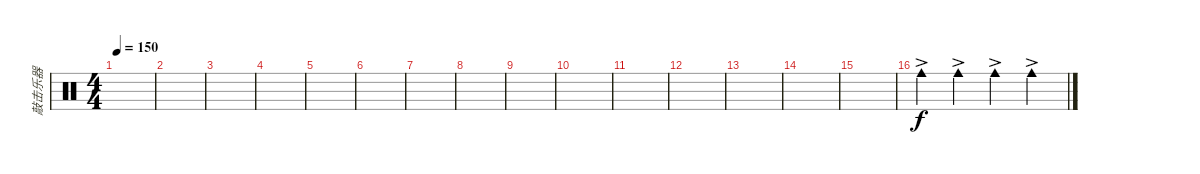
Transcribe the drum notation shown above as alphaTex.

\track ("敲击乐器" "敲击乐器") {instrument percussion}
\staff {score}
\articulation defaults
\ts (4 4)
\tempo 150
\clef neutral
\ks c
|
|
|
|
|
|
|
|
|
|
|
|
|
|
|
"Cowbell medium (hit)"{ac}.4 "Cowbell medium (hit)"{ac}.4 "Cowbell medium (hit)"{ac}.4 "Cowbell medium (hit)"{ac}.4
